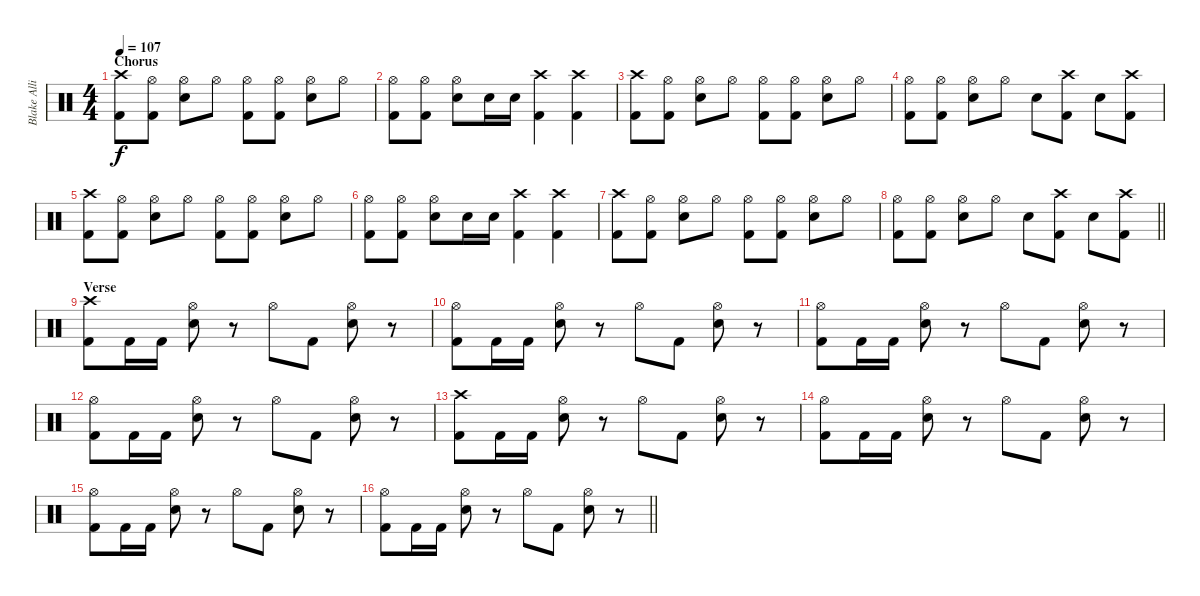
\track ("Blake Allison" "Blake Alli") {instrument percussion}
\staff {score}
\articulation defaults
\ts (4 4)
\section ("" "Chorus")
\tempo 107
\clef neutral
\ks c
("Crash high (hit)" "Kick (hit) 2").8{dy f} ("Hi-Hat (open)" "Kick (hit) 2").8 ("Hi-Hat (open)" "Electric Snare (hit)").8 "Hi-Hat (open)".8 ("Hi-Hat (open)" "Kick (hit) 2").8 ("Hi-Hat (open)" "Kick (hit) 2").8 ("Hi-Hat (open)" "Electric Snare (hit)").8 "Hi-Hat (open)".8 |
("Hi-Hat (open)" "Kick (hit) 2").8 ("Hi-Hat (open)" "Kick (hit) 2").8 ("Hi-Hat (open)" "Electric Snare (hit)").8 "Electric Snare (hit)".16 "Electric Snare (hit)".16 ("Crash high (hit)" "Kick (hit) 2").4 ("Crash high (hit)" "Kick (hit) 2").4 |
("Crash high (hit)" "Kick (hit) 2").8 ("Hi-Hat (open)" "Kick (hit) 2").8 ("Hi-Hat (open)" "Electric Snare (hit)").8 "Hi-Hat (open)".8 ("Hi-Hat (open)" "Kick (hit) 2").8 ("Hi-Hat (open)" "Kick (hit) 2").8 ("Hi-Hat (open)" "Electric Snare (hit)").8 "Hi-Hat (open)".8 |
("Hi-Hat (open)" "Kick (hit) 2").8 ("Hi-Hat (open)" "Kick (hit) 2").8 ("Hi-Hat (open)" "Electric Snare (hit)").8 "Hi-Hat (open)".8 "Electric Snare (hit)".8 ("Crash high (hit)" "Kick (hit) 2").8 "Electric Snare (hit)".8 ("Crash high (hit)" "Kick (hit) 2").8 |
("Crash high (hit)" "Kick (hit) 2").8 ("Hi-Hat (open)" "Kick (hit) 2").8 ("Hi-Hat (open)" "Electric Snare (hit)").8 "Hi-Hat (open)".8 ("Hi-Hat (open)" "Kick (hit) 2").8 ("Hi-Hat (open)" "Kick (hit) 2").8 ("Hi-Hat (open)" "Electric Snare (hit)").8 "Hi-Hat (open)".8 |
("Hi-Hat (open)" "Kick (hit) 2").8 ("Hi-Hat (open)" "Kick (hit) 2").8 ("Hi-Hat (open)" "Electric Snare (hit)").8 "Electric Snare (hit)".16 "Electric Snare (hit)".16 ("Crash high (hit)" "Kick (hit) 2").4 ("Crash high (hit)" "Kick (hit) 2").4 |
("Crash high (hit)" "Kick (hit) 2").8 ("Hi-Hat (open)" "Kick (hit) 2").8 ("Hi-Hat (open)" "Electric Snare (hit)").8 "Hi-Hat (open)".8 ("Hi-Hat (open)" "Kick (hit) 2").8 ("Hi-Hat (open)" "Kick (hit) 2").8 ("Hi-Hat (open)" "Electric Snare (hit)").8 "Hi-Hat (open)".8 |
\barLineRight lightlight
("Hi-Hat (open)" "Kick (hit) 2").8 ("Hi-Hat (open)" "Kick (hit) 2").8 ("Hi-Hat (open)" "Electric Snare (hit)").8 "Hi-Hat (open)".8 "Electric Snare (hit)".8 ("Crash high (hit)" "Kick (hit) 2").8 "Electric Snare (hit)".8 ("Crash high (hit)" "Kick (hit) 2").8 |
\section ("" "Verse")
("Crash high (hit)" "Kick (hit) 2").8 "Kick (hit) 2".16 "Kick (hit) 2".16 ("Hi-Hat (open)" "Electric Snare (hit)").8 r.8 "Hi-Hat (open)".8 "Kick (hit) 2".8 ("Hi-Hat (open)" "Electric Snare (hit)").8 r.8 |
("Hi-Hat (open)" "Kick (hit) 2").8 "Kick (hit) 2".16 "Kick (hit) 2".16 ("Hi-Hat (open)" "Electric Snare (hit)").8 r.8 "Hi-Hat (open)".8 "Kick (hit) 2".8 ("Hi-Hat (open)" "Electric Snare (hit)").8 r.8 |
("Hi-Hat (open)" "Kick (hit) 2").8 "Kick (hit) 2".16 "Kick (hit) 2".16 ("Hi-Hat (open)" "Electric Snare (hit)").8 r.8 "Hi-Hat (open)".8 "Kick (hit) 2".8 ("Hi-Hat (open)" "Electric Snare (hit)").8 r.8 |
("Hi-Hat (open)" "Kick (hit) 2").8 "Kick (hit) 2".16 "Kick (hit) 2".16 ("Hi-Hat (open)" "Electric Snare (hit)").8 r.8 "Hi-Hat (open)".8 "Kick (hit) 2".8 ("Hi-Hat (open)" "Electric Snare (hit)").8 r.8 |
("Crash high (hit)" "Kick (hit) 2").8 "Kick (hit) 2".16 "Kick (hit) 2".16 ("Hi-Hat (open)" "Electric Snare (hit)").8 r.8 "Hi-Hat (open)".8 "Kick (hit) 2".8 ("Hi-Hat (open)" "Electric Snare (hit)").8 r.8 |
("Hi-Hat (open)" "Kick (hit) 2").8 "Kick (hit) 2".16 "Kick (hit) 2".16 ("Hi-Hat (open)" "Electric Snare (hit)").8 r.8 "Hi-Hat (open)".8 "Kick (hit) 2".8 ("Hi-Hat (open)" "Electric Snare (hit)").8 r.8 |
("Hi-Hat (open)" "Kick (hit) 2").8 "Kick (hit) 2".16 "Kick (hit) 2".16 ("Hi-Hat (open)" "Electric Snare (hit)").8 r.8 "Hi-Hat (open)".8 "Kick (hit) 2".8 ("Hi-Hat (open)" "Electric Snare (hit)").8 r.8 |
\barLineRight lightlight
("Hi-Hat (open)" "Kick (hit) 2").8 "Kick (hit) 2".16 "Kick (hit) 2".16 ("Hi-Hat (open)" "Electric Snare (hit)").8 r.8 "Hi-Hat (open)".8 "Kick (hit) 2".8 ("Hi-Hat (open)" "Electric Snare (hit)").8 r.8
